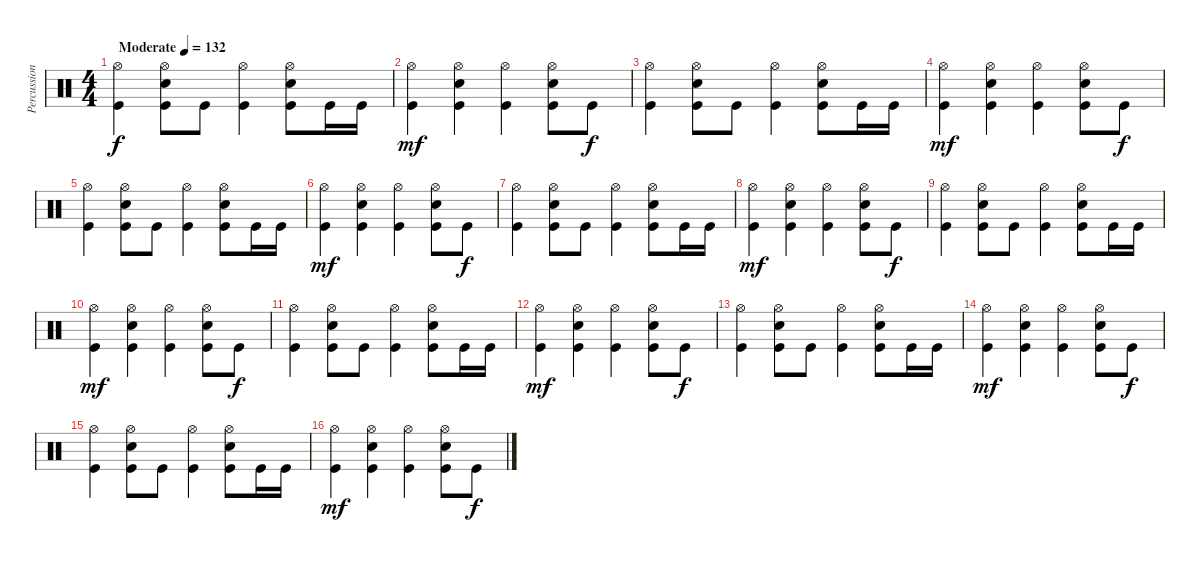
\track ("Percussion" "Percussion") {instrument percussion}
\staff {score}
\articulation defaults
\ts (4 4)
\tempo (132 "Moderate")
\clef neutral
\ks c
("Hi-Hat (open)" "Kick (hit)").4{dy f} ("Hi-Hat (open)" "Electric Snare (hit)" "Kick (hit)").8 "Kick (hit)".8 ("Hi-Hat (open)" "Kick (hit)").4 ("Hi-Hat (open)" "Electric Snare (hit)" "Kick (hit)").8 "Kick (hit)".16 "Kick (hit)".16 |
("Hi-Hat (open)" "Kick (hit)").4{dy mf} ("Hi-Hat (open)" "Electric Snare (hit)" "Kick (hit)").4 ("Hi-Hat (open)" "Kick (hit)").4 ("Hi-Hat (open)" "Electric Snare (hit)" "Kick (hit)").8 "Kick (hit)".8{dy f} |
("Hi-Hat (open)" "Kick (hit)").4 ("Hi-Hat (open)" "Electric Snare (hit)" "Kick (hit)").8 "Kick (hit)".8 ("Hi-Hat (open)" "Kick (hit)").4 ("Hi-Hat (open)" "Electric Snare (hit)" "Kick (hit)").8 "Kick (hit)".16 "Kick (hit)".16 |
("Hi-Hat (open)" "Kick (hit)").4{dy mf} ("Hi-Hat (open)" "Electric Snare (hit)" "Kick (hit)").4 ("Hi-Hat (open)" "Kick (hit)").4 ("Hi-Hat (open)" "Electric Snare (hit)" "Kick (hit)").8 "Kick (hit)".8{dy f} |
("Hi-Hat (open)" "Kick (hit)").4 ("Hi-Hat (open)" "Electric Snare (hit)" "Kick (hit)").8 "Kick (hit)".8 ("Hi-Hat (open)" "Kick (hit)").4 ("Hi-Hat (open)" "Electric Snare (hit)" "Kick (hit)").8 "Kick (hit)".16 "Kick (hit)".16 |
("Hi-Hat (open)" "Kick (hit)").4{dy mf} ("Hi-Hat (open)" "Electric Snare (hit)" "Kick (hit)").4 ("Hi-Hat (open)" "Kick (hit)").4 ("Hi-Hat (open)" "Electric Snare (hit)" "Kick (hit)").8 "Kick (hit)".8{dy f} |
("Hi-Hat (open)" "Kick (hit)").4 ("Hi-Hat (open)" "Electric Snare (hit)" "Kick (hit)").8 "Kick (hit)".8 ("Hi-Hat (open)" "Kick (hit)").4 ("Hi-Hat (open)" "Electric Snare (hit)" "Kick (hit)").8 "Kick (hit)".16 "Kick (hit)".16 |
("Hi-Hat (open)" "Kick (hit)").4{dy mf} ("Hi-Hat (open)" "Electric Snare (hit)" "Kick (hit)").4 ("Hi-Hat (open)" "Kick (hit)").4 ("Hi-Hat (open)" "Electric Snare (hit)" "Kick (hit)").8 "Kick (hit)".8{dy f} |
("Hi-Hat (open)" "Kick (hit)").4 ("Hi-Hat (open)" "Electric Snare (hit)" "Kick (hit)").8 "Kick (hit)".8 ("Hi-Hat (open)" "Kick (hit)").4 ("Hi-Hat (open)" "Electric Snare (hit)" "Kick (hit)").8 "Kick (hit)".16 "Kick (hit)".16 |
("Hi-Hat (open)" "Kick (hit)").4{dy mf} ("Hi-Hat (open)" "Electric Snare (hit)" "Kick (hit)").4 ("Hi-Hat (open)" "Kick (hit)").4 ("Hi-Hat (open)" "Electric Snare (hit)" "Kick (hit)").8 "Kick (hit)".8{dy f} |
("Hi-Hat (open)" "Kick (hit)").4 ("Hi-Hat (open)" "Electric Snare (hit)" "Kick (hit)").8 "Kick (hit)".8 ("Hi-Hat (open)" "Kick (hit)").4 ("Hi-Hat (open)" "Electric Snare (hit)" "Kick (hit)").8 "Kick (hit)".16 "Kick (hit)".16 |
("Hi-Hat (open)" "Kick (hit)").4{dy mf} ("Hi-Hat (open)" "Electric Snare (hit)" "Kick (hit)").4 ("Hi-Hat (open)" "Kick (hit)").4 ("Hi-Hat (open)" "Electric Snare (hit)" "Kick (hit)").8 "Kick (hit)".8{dy f} |
("Hi-Hat (open)" "Kick (hit)").4 ("Hi-Hat (open)" "Electric Snare (hit)" "Kick (hit)").8 "Kick (hit)".8 ("Hi-Hat (open)" "Kick (hit)").4 ("Hi-Hat (open)" "Electric Snare (hit)" "Kick (hit)").8 "Kick (hit)".16 "Kick (hit)".16 |
("Hi-Hat (open)" "Kick (hit)").4{dy mf} ("Hi-Hat (open)" "Electric Snare (hit)" "Kick (hit)").4 ("Hi-Hat (open)" "Kick (hit)").4 ("Hi-Hat (open)" "Electric Snare (hit)" "Kick (hit)").8 "Kick (hit)".8{dy f} |
("Hi-Hat (open)" "Kick (hit)").4 ("Hi-Hat (open)" "Electric Snare (hit)" "Kick (hit)").8 "Kick (hit)".8 ("Hi-Hat (open)" "Kick (hit)").4 ("Hi-Hat (open)" "Electric Snare (hit)" "Kick (hit)").8 "Kick (hit)".16 "Kick (hit)".16 |
("Hi-Hat (open)" "Kick (hit)").4{dy mf} ("Hi-Hat (open)" "Electric Snare (hit)" "Kick (hit)").4 ("Hi-Hat (open)" "Kick (hit)").4 ("Hi-Hat (open)" "Electric Snare (hit)" "Kick (hit)").8 "Kick (hit)".8{dy f}
